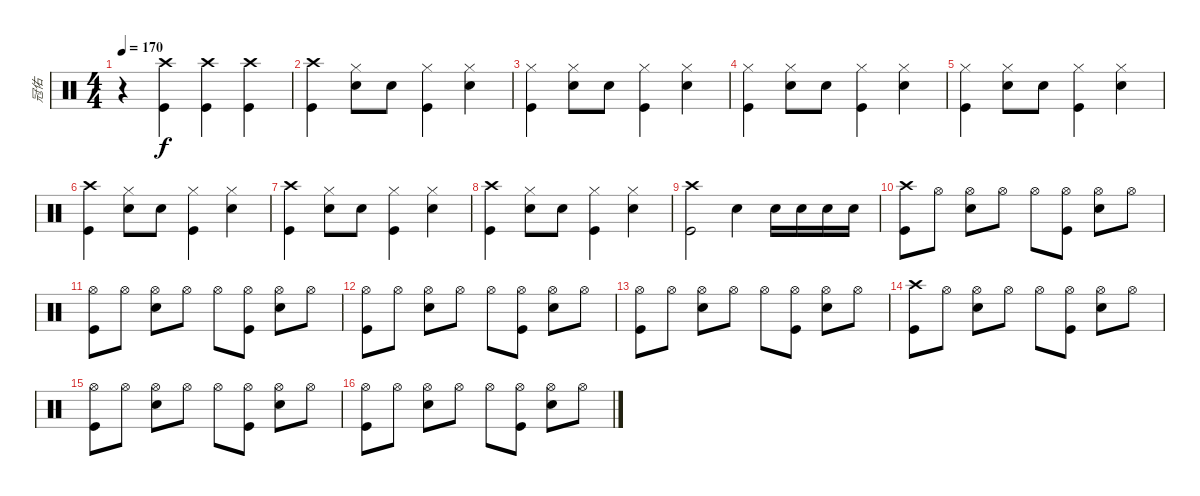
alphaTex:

\track ("冠佑" "冠佑") {instrument percussion}
\staff {score}
\articulation defaults
\ts (4 4)
\tempo 170
\clef neutral
\ks c
r.4{dy f} ("Crash high (hit)" "Kick (hit)").4 ("Crash high (hit)" "Kick (hit)").4 ("Crash high (hit)" "Kick (hit)").4 |
("Crash high (hit)" "Kick (hit)").4 ("Hi-Hat (closed)" "Snare (hit) 2").8 "Snare (hit) 2".8 ("Hi-Hat (closed)" "Kick (hit)").4 ("Hi-Hat (closed)" "Snare (hit) 2").4 |
("Hi-Hat (closed)" "Kick (hit)").4 ("Hi-Hat (closed)" "Snare (hit) 2").8 "Snare (hit) 2".8 ("Hi-Hat (closed)" "Kick (hit)").4 ("Hi-Hat (closed)" "Snare (hit) 2").4 |
("Hi-Hat (closed)" "Kick (hit)").4 ("Hi-Hat (closed)" "Snare (hit) 2").8 "Snare (hit) 2".8 ("Hi-Hat (closed)" "Kick (hit)").4 ("Hi-Hat (closed)" "Snare (hit) 2").4 |
("Hi-Hat (closed)" "Kick (hit)").4 ("Hi-Hat (closed)" "Snare (hit) 2").8 "Snare (hit) 2".8 ("Hi-Hat (closed)" "Kick (hit)").4 ("Hi-Hat (closed)" "Snare (hit) 2").4 |
("Crash high (hit)" "Kick (hit)").4 ("Hi-Hat (closed)" "Snare (hit) 2").8 "Snare (hit) 2".8 ("Hi-Hat (closed)" "Kick (hit)").4 ("Hi-Hat (closed)" "Snare (hit) 2").4 |
("Crash high (hit)" "Kick (hit)").4 ("Hi-Hat (closed)" "Snare (hit) 2").8 "Snare (hit) 2".8 ("Hi-Hat (closed)" "Kick (hit)").4 ("Hi-Hat (closed)" "Snare (hit) 2").4 |
("Crash high (hit)" "Kick (hit)").4 ("Hi-Hat (closed)" "Snare (hit) 2").8 "Snare (hit) 2".8 ("Hi-Hat (closed)" "Kick (hit)").4 ("Hi-Hat (closed)" "Snare (hit) 2").4 |
("Crash high (hit)" "Kick (hit)").2 "Snare (hit) 2".4 "Snare (hit) 2".16 "Snare (hit) 2".16 "Snare (hit) 2".16 "Snare (hit) 2".16 |
("Crash high (hit)" "Kick (hit)").8 "Hi-Hat (open)".8 ("Hi-Hat (open)" "Snare (hit) 2").8 "Hi-Hat (open)".8 "Hi-Hat (open)".8 ("Hi-Hat (open)" "Kick (hit)").8 ("Hi-Hat (open)" "Snare (hit) 2").8 "Hi-Hat (open)".8 |
("Hi-Hat (open)" "Kick (hit)").8 "Hi-Hat (open)".8 ("Hi-Hat (open)" "Snare (hit) 2").8 "Hi-Hat (open)".8 "Hi-Hat (open)".8 ("Hi-Hat (open)" "Kick (hit)").8 ("Hi-Hat (open)" "Snare (hit) 2").8 "Hi-Hat (open)".8 |
("Hi-Hat (open)" "Kick (hit)").8 "Hi-Hat (open)".8 ("Hi-Hat (open)" "Snare (hit) 2").8 "Hi-Hat (open)".8 "Hi-Hat (open)".8 ("Hi-Hat (open)" "Kick (hit)").8 ("Hi-Hat (open)" "Snare (hit) 2").8 "Hi-Hat (open)".8 |
("Hi-Hat (open)" "Kick (hit)").8 "Hi-Hat (open)".8 ("Hi-Hat (open)" "Snare (hit) 2").8 "Hi-Hat (open)".8 "Hi-Hat (open)".8 ("Hi-Hat (open)" "Kick (hit)").8 ("Hi-Hat (open)" "Snare (hit) 2").8 "Hi-Hat (open)".8 |
("Crash high (hit)" "Kick (hit)").8 "Hi-Hat (open)".8 ("Hi-Hat (open)" "Snare (hit) 2").8 "Hi-Hat (open)".8 "Hi-Hat (open)".8 ("Hi-Hat (open)" "Kick (hit)").8 ("Hi-Hat (open)" "Snare (hit) 2").8 "Hi-Hat (open)".8 |
("Hi-Hat (open)" "Kick (hit)").8 "Hi-Hat (open)".8 ("Hi-Hat (open)" "Snare (hit) 2").8 "Hi-Hat (open)".8 "Hi-Hat (open)".8 ("Hi-Hat (open)" "Kick (hit)").8 ("Hi-Hat (open)" "Snare (hit) 2").8 "Hi-Hat (open)".8 |
("Hi-Hat (open)" "Kick (hit)").8 "Hi-Hat (open)".8 ("Hi-Hat (open)" "Snare (hit) 2").8 "Hi-Hat (open)".8 "Hi-Hat (open)".8 ("Hi-Hat (open)" "Kick (hit)").8 ("Hi-Hat (open)" "Snare (hit) 2").8 "Hi-Hat (open)".8
